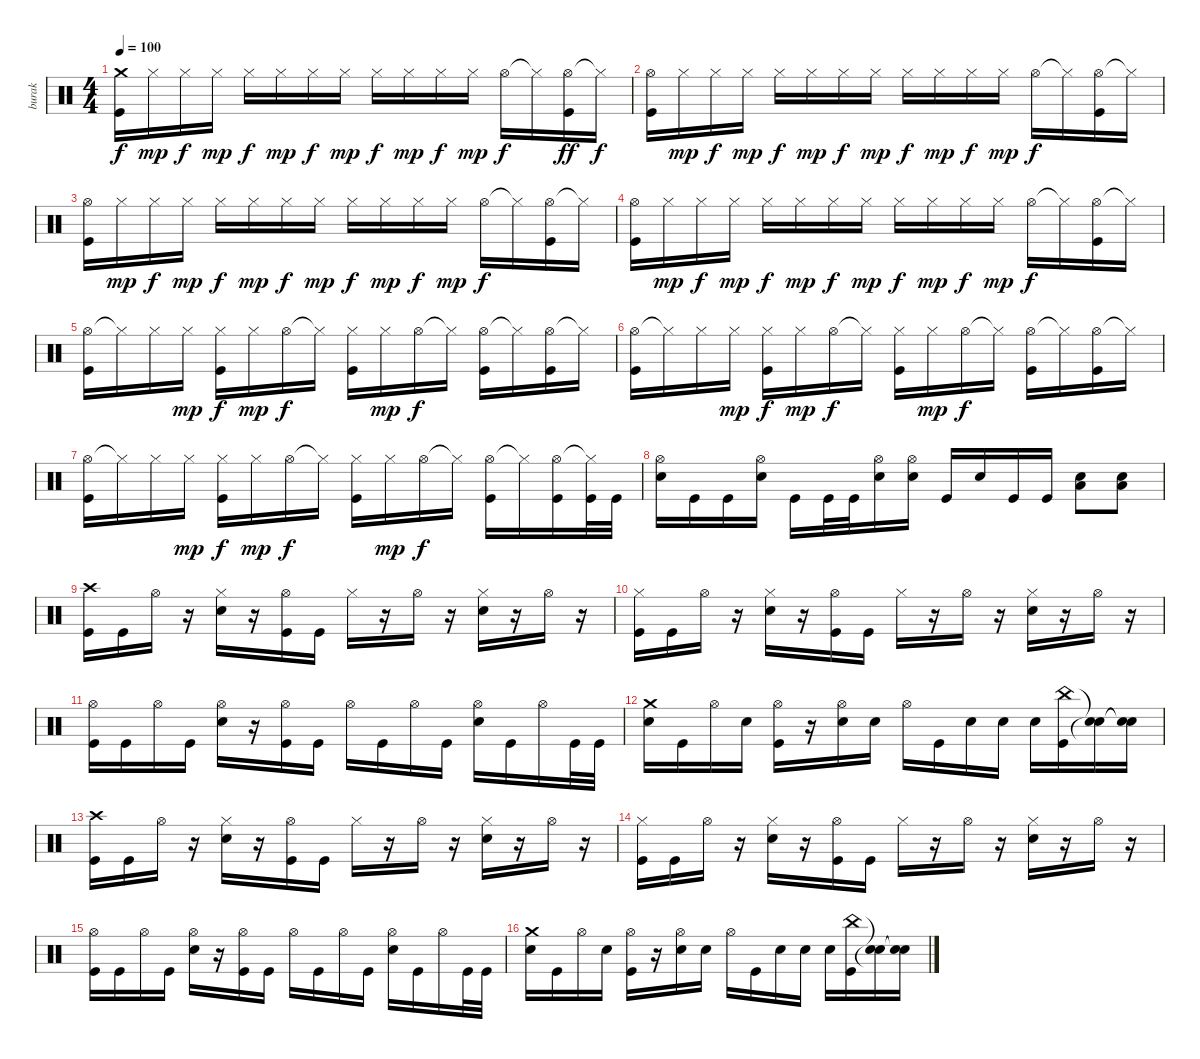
\track ("burak" "burak") {instrument percussion}
\staff {score}
\articulation defaults
\ts (4 4)
\tempo 100
\clef neutral
\ks c
("Crash medium (hit)" "Kick (hit)").16{dy f} "Hi-Hat (closed)".16{dy mp} "Hi-Hat (closed)".16{dy f} "Hi-Hat (closed)".16{dy mp} "Hi-Hat (closed)".16{dy f} "Hi-Hat (closed)".16{dy mp} "Hi-Hat (closed)".16{dy f} "Hi-Hat (closed)".16{dy mp} "Hi-Hat (closed)".16{dy f} "Hi-Hat (closed)".16{dy mp} "Hi-Hat (closed)".16{dy f} "Hi-Hat (closed)".16{dy mp} "Hi-Hat (open)".16{dy f} "Hi-Hat (closed)"{t}.16 ("Hi-Hat (open)" "Kick (hit)").16{dy ff} "Hi-Hat (closed)"{t}.16{dy f} |
("Hi-Hat (open)" "Kick (hit)").16 "Hi-Hat (closed)".16{dy mp} "Hi-Hat (closed)".16{dy f} "Hi-Hat (closed)".16{dy mp} "Hi-Hat (closed)".16{dy f} "Hi-Hat (closed)".16{dy mp} "Hi-Hat (closed)".16{dy f} "Hi-Hat (closed)".16{dy mp} "Hi-Hat (closed)".16{dy f} "Hi-Hat (closed)".16{dy mp} "Hi-Hat (closed)".16{dy f} "Hi-Hat (closed)".16{dy mp} "Hi-Hat (open)".16{dy f} "Hi-Hat (closed)"{t}.16 ("Hi-Hat (open)" "Kick (hit)").16 "Hi-Hat (closed)"{t}.16 |
("Hi-Hat (open)" "Kick (hit)").16 "Hi-Hat (closed)".16{dy mp} "Hi-Hat (closed)".16{dy f} "Hi-Hat (closed)".16{dy mp} "Hi-Hat (closed)".16{dy f} "Hi-Hat (closed)".16{dy mp} "Hi-Hat (closed)".16{dy f} "Hi-Hat (closed)".16{dy mp} "Hi-Hat (closed)".16{dy f} "Hi-Hat (closed)".16{dy mp} "Hi-Hat (closed)".16{dy f} "Hi-Hat (closed)".16{dy mp} "Hi-Hat (open)".16{dy f} "Hi-Hat (closed)"{t}.16 ("Hi-Hat (open)" "Kick (hit)").16 "Hi-Hat (closed)"{t}.16 |
("Hi-Hat (open)" "Kick (hit)").16 "Hi-Hat (closed)".16{dy mp} "Hi-Hat (closed)".16{dy f} "Hi-Hat (closed)".16{dy mp} "Hi-Hat (closed)".16{dy f} "Hi-Hat (closed)".16{dy mp} "Hi-Hat (closed)".16{dy f} "Hi-Hat (closed)".16{dy mp} "Hi-Hat (closed)".16{dy f} "Hi-Hat (closed)".16{dy mp} "Hi-Hat (closed)".16{dy f} "Hi-Hat (closed)".16{dy mp} "Hi-Hat (open)".16{dy f} "Hi-Hat (closed)"{t}.16 ("Hi-Hat (open)" "Kick (hit)").16 "Hi-Hat (closed)"{t}.16 |
("Hi-Hat (open)" "Kick (hit)").16 "Hi-Hat (closed)"{t}.16 "Hi-Hat (closed)".16 "Hi-Hat (closed)".16{dy mp} ("Hi-Hat (closed)" "Kick (hit)").16{dy f} "Hi-Hat (closed)".16{dy mp} "Hi-Hat (open)".16{dy f} "Hi-Hat (closed)"{t}.16 ("Hi-Hat (closed)" "Kick (hit)").16 "Hi-Hat (closed)".16{dy mp} "Hi-Hat (open)".16{dy f} "Hi-Hat (closed)"{t}.16 ("Hi-Hat (open)" "Kick (hit)").16 "Hi-Hat (closed)"{t}.16 ("Hi-Hat (open)" "Kick (hit)").16 "Hi-Hat (closed)"{t}.16 |
("Hi-Hat (open)" "Kick (hit)").16 "Hi-Hat (closed)"{t}.16 "Hi-Hat (closed)".16 "Hi-Hat (closed)".16{dy mp} ("Hi-Hat (closed)" "Kick (hit)").16{dy f} "Hi-Hat (closed)".16{dy mp} "Hi-Hat (open)".16{dy f} "Hi-Hat (closed)"{t}.16 ("Hi-Hat (closed)" "Kick (hit)").16 "Hi-Hat (closed)".16{dy mp} "Hi-Hat (open)".16{dy f} "Hi-Hat (closed)"{t}.16 ("Hi-Hat (open)" "Kick (hit)").16 "Hi-Hat (closed)"{t}.16 ("Hi-Hat (open)" "Kick (hit)").16 "Hi-Hat (closed)"{t}.16 |
("Hi-Hat (open)" "Kick (hit)").16 "Hi-Hat (closed)"{t}.16 "Hi-Hat (closed)".16 "Hi-Hat (closed)".16{dy mp} ("Hi-Hat (closed)" "Kick (hit)").16{dy f} "Hi-Hat (closed)".16{dy mp} "Hi-Hat (open)".16{dy f} "Hi-Hat (closed)"{t}.16 ("Hi-Hat (closed)" "Kick (hit)").16 "Hi-Hat (closed)".16{dy mp} "Hi-Hat (open)".16{dy f} "Hi-Hat (closed)"{t}.16 ("Hi-Hat (open)" "Kick (hit)").16 "Hi-Hat (closed)"{t}.16 ("Hi-Hat (open)" "Kick (hit)").16 ("Hi-Hat (closed)"{t} "Kick (hit)").32 "Kick (hit)".32 |
("Electric Snare (hit)" "Hi-Hat (open)").16 "Kick (hit)".16 "Kick (hit)".16 ("Electric Snare (hit)" "Hi-Hat (open)").16 "Kick (hit)".16 "Kick (hit)".32 "Kick (hit)".32 ("Electric Snare (hit)" "Hi-Hat (open)").16 ("Electric Snare (hit)" "Hi-Hat (open)").16 "Kick (hit)".16 "Electric Snare (hit)".16 "Kick (hit)".16 "Kick (hit)".16 ("Low Floor Tom (hit)" "Electric Snare (hit)").8 ("Low Floor Tom (hit)" "Electric Snare (hit)").8 |
("Crash high (hit)" "Kick (hit)").16 "Kick (hit)".16 "Hi-Hat (open)".16 r.16 ("Hi-Hat (closed)" "Electric Snare (hit)").16 r.16 ("Hi-Hat (open)" "Kick (hit)").16 "Kick (hit)".16 "Hi-Hat (closed)".16 r.16 "Hi-Hat (open)".16 r.16 ("Hi-Hat (closed)" "Electric Snare (hit)").16 r.16 "Hi-Hat (open)".16 r.16 |
("Hi-Hat (closed)" "Kick (hit)").16 "Kick (hit)".16 "Hi-Hat (open)".16 r.16 ("Hi-Hat (closed)" "Electric Snare (hit)").16 r.16 ("Hi-Hat (open)" "Kick (hit)").16 "Kick (hit)".16 "Hi-Hat (closed)".16 r.16 "Hi-Hat (open)".16 r.16 ("Hi-Hat (closed)" "Electric Snare (hit)").16 r.16 "Hi-Hat (open)".16 r.16 |
("Hi-Hat (open)" "Kick (hit)").16 "Kick (hit)".16 "Hi-Hat (open)".16 "Kick (hit)".16 ("Hi-Hat (open)" "Electric Snare (hit)").16 r.16 ("Hi-Hat (open)" "Kick (hit)").16 "Kick (hit)".16 "Hi-Hat (open)".16 "Kick (hit)".16 "Hi-Hat (open)".16 "Kick (hit)".16 ("Hi-Hat (open)" "Electric Snare (hit)").16 "Kick (hit)".16 "Hi-Hat (open)".16 "Kick (hit)".32 "Kick (hit)".32 |
("Crash medium (hit)" "Electric Snare (hit)").16 "Kick (hit)".16 "Hi-Hat (open)".16 "Electric Snare (hit)".16 ("Hi-Hat (open)" "Kick (hit)").16 r.16 ("Hi-Hat (open)" "Electric Snare (hit)").16 "Electric Snare (hit)".16 "Hi-Hat (open)".16 "Kick (hit)".16 "Electric Snare (hit)".16 "Electric Snare (hit)".16 "Electric Snare (hit)".16 ("China (hit)" "Kick (hit)").16 ("Snare (hit)"{t} "Snare (hit)"{t}).16 ("Snare (hit)"{t} "Snare (hit)"{t}).16 |
("Crash high (hit)" "Kick (hit)").16 "Kick (hit)".16 "Hi-Hat (open)".16 r.16 ("Hi-Hat (closed)" "Electric Snare (hit)").16 r.16 ("Hi-Hat (open)" "Kick (hit)").16 "Kick (hit)".16 "Hi-Hat (closed)".16 r.16 "Hi-Hat (open)".16 r.16 ("Hi-Hat (closed)" "Electric Snare (hit)").16 r.16 "Hi-Hat (open)".16 r.16 |
("Hi-Hat (closed)" "Kick (hit)").16 "Kick (hit)".16 "Hi-Hat (open)".16 r.16 ("Hi-Hat (closed)" "Electric Snare (hit)").16 r.16 ("Hi-Hat (open)" "Kick (hit)").16 "Kick (hit)".16 "Hi-Hat (closed)".16 r.16 "Hi-Hat (open)".16 r.16 ("Hi-Hat (closed)" "Electric Snare (hit)").16 r.16 "Hi-Hat (open)".16 r.16 |
("Hi-Hat (open)" "Kick (hit)").16 "Kick (hit)".16 "Hi-Hat (open)".16 "Kick (hit)".16 ("Hi-Hat (open)" "Electric Snare (hit)").16 r.16 ("Hi-Hat (open)" "Kick (hit)").16 "Kick (hit)".16 "Hi-Hat (open)".16 "Kick (hit)".16 "Hi-Hat (open)".16 "Kick (hit)".16 ("Hi-Hat (open)" "Electric Snare (hit)").16 "Kick (hit)".16 "Hi-Hat (open)".16 "Kick (hit)".32 "Kick (hit)".32 |
("Crash medium (hit)" "Electric Snare (hit)").16 "Kick (hit)".16 "Hi-Hat (open)".16 "Electric Snare (hit)".16 ("Hi-Hat (open)" "Kick (hit)").16 r.16 ("Hi-Hat (open)" "Electric Snare (hit)").16 "Electric Snare (hit)".16 "Hi-Hat (open)".16 "Kick (hit)".16 "Electric Snare (hit)".16 "Electric Snare (hit)".16 "Electric Snare (hit)".16 ("China (hit)" "Kick (hit)").16 ("Snare (hit)"{t} "Snare (hit)"{t}).16 ("Snare (hit)"{t} "Snare (hit)"{t}).16
